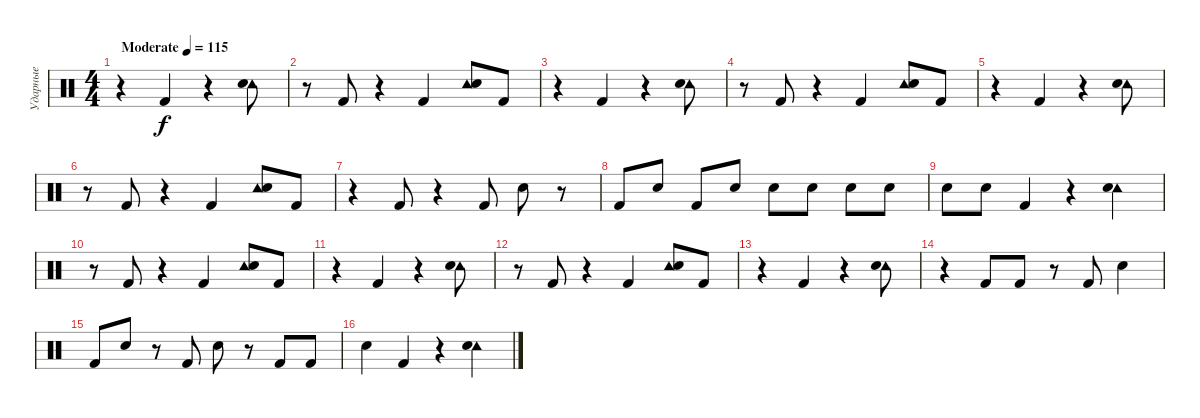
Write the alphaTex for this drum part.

\track ("Ударные" "Ударные") {instrument percussion}
\staff
\articulation defaults
\ts (4 4)
\tempo (115 "Moderate")
\clef neutral
\ks c
r.4{dy f} "Kick (hit) 2".4 r.4 ("Tambourine (hit)" "Electric Snare (hit)").8 |
r.8 "Kick (hit) 2".8 r.4 "Kick (hit) 2".4 ("Tambourine (hit)" "Electric Snare (hit)").8 "Kick (hit) 2".8 |
r.4 "Kick (hit) 2".4 r.4 ("Tambourine (hit)" "Electric Snare (hit)").8 |
r.8 "Kick (hit) 2".8 r.4 "Kick (hit) 2".4 ("Tambourine (hit)" "Electric Snare (hit)").8 "Kick (hit) 2".8 |
r.4 "Kick (hit) 2".4 r.4 ("Tambourine (hit)" "Electric Snare (hit)").8 |
r.8 "Kick (hit) 2".8 r.4 "Kick (hit) 2".4 ("Tambourine (hit)" "Electric Snare (hit)").8 "Kick (hit) 2".8 |
r.4 "Kick (hit) 2".8 r.4 "Kick (hit) 2".8 "Electric Snare (hit)".8 r.8 |
"Kick (hit) 2".8 "Electric Snare (hit)".8 "Kick (hit) 2".8 "Electric Snare (hit)".8 "Electric Snare (hit)".8 "Electric Snare (hit)".8 "Electric Snare (hit)".8 "Electric Snare (hit)".8 |
"Electric Snare (hit)".8 "Electric Snare (hit)".8 "Kick (hit) 2".4 r.4 ("Tambourine (hit)" "Electric Snare (hit)").4 |
r.8 "Kick (hit) 2".8 r.4 "Kick (hit) 2".4 ("Tambourine (hit)" "Electric Snare (hit)").8 "Kick (hit) 2".8 |
r.4 "Kick (hit) 2".4 r.4 ("Tambourine (hit)" "Electric Snare (hit)").8 |
r.8 "Kick (hit) 2".8 r.4 "Kick (hit) 2".4 ("Tambourine (hit)" "Electric Snare (hit)").8 "Kick (hit) 2".8 |
r.4 "Kick (hit) 2".4 r.4 ("Tambourine (hit)" "Electric Snare (hit)").8 |
r.4 "Kick (hit) 2".8 "Kick (hit) 2".8 r.8 "Kick (hit) 2".8 "Electric Snare (hit)".4 |
"Kick (hit) 2".8 "Electric Snare (hit)".8 r.8 "Kick (hit) 2".8 "Electric Snare (hit)".8 r.8 "Kick (hit) 2".8 "Kick (hit) 2".8 |
"Electric Snare (hit)".4 "Kick (hit) 2".4 r.4 ("Tambourine (hit)" "Electric Snare (hit)").4
